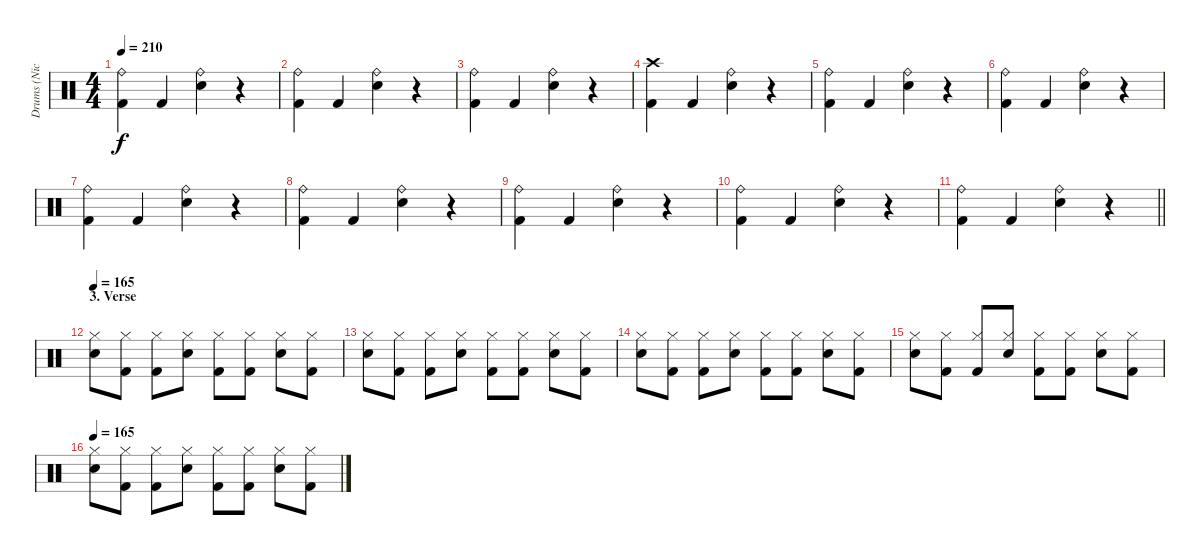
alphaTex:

\track ("Drums (Nicko McBrain)" "Drums (Nic") {instrument percussion}
\staff {score}
\articulation defaults
\ts (4 4)
\tempo 210
\clef neutral
\ks c
("Ride (bell)" "Kick (hit) 2").4{dy f} "Kick (hit) 2".4 ("Ride (bell)" "Electric Snare (hit)").4 r.4 |
("Ride (bell)" "Kick (hit) 2").4 "Kick (hit) 2".4 ("Ride (bell)" "Electric Snare (hit)").4 r.4 |
("Ride (bell)" "Kick (hit) 2").4 "Kick (hit) 2".4 ("Ride (bell)" "Electric Snare (hit)").4 r.4 |
("Crash high (hit)" "Kick (hit) 2").4 "Kick (hit) 2".4 ("Ride (bell)" "Electric Snare (hit)").4 r.4 |
("Ride (bell)" "Kick (hit) 2").4 "Kick (hit) 2".4 ("Ride (bell)" "Electric Snare (hit)").4 r.4 |
("Ride (bell)" "Kick (hit) 2").4 "Kick (hit) 2".4 ("Ride (bell)" "Electric Snare (hit)").4 r.4 |
("Ride (bell)" "Kick (hit) 2").4 "Kick (hit) 2".4 ("Ride (bell)" "Electric Snare (hit)").4 r.4 |
("Ride (bell)" "Kick (hit) 2").4 "Kick (hit) 2".4 ("Ride (bell)" "Electric Snare (hit)").4 r.4 |
("Ride (bell)" "Kick (hit) 2").4 "Kick (hit) 2".4 ("Ride (bell)" "Electric Snare (hit)").4 r.4 |
("Ride (bell)" "Kick (hit) 2").4 "Kick (hit) 2".4 ("Ride (bell)" "Electric Snare (hit)").4 r.4 |
\barLineRight lightlight
("Ride (bell)" "Kick (hit) 2").4 "Kick (hit) 2".4 ("Ride (bell)" "Electric Snare (hit)").4 r.4 |
\section ("" "3. Verse")
\tempo 165
("Hi-Hat (closed)" "Electric Snare (hit)").8 ("Hi-Hat (closed)" "Kick (hit) 2").8 ("Hi-Hat (closed)" "Kick (hit) 2").8 ("Hi-Hat (closed)" "Electric Snare (hit)").8 ("Hi-Hat (closed)" "Kick (hit) 2").8 ("Hi-Hat (closed)" "Kick (hit) 2").8 ("Hi-Hat (closed)" "Electric Snare (hit)").8 ("Hi-Hat (closed)" "Kick (hit) 2").8 |
("Hi-Hat (closed)" "Electric Snare (hit)").8 ("Hi-Hat (closed)" "Kick (hit) 2").8 ("Hi-Hat (closed)" "Kick (hit) 2").8 ("Hi-Hat (closed)" "Electric Snare (hit)").8 ("Hi-Hat (closed)" "Kick (hit) 2").8 ("Hi-Hat (closed)" "Kick (hit) 2").8 ("Hi-Hat (closed)" "Electric Snare (hit)").8 ("Hi-Hat (closed)" "Kick (hit) 2").8 |
("Hi-Hat (closed)" "Electric Snare (hit)").8 ("Hi-Hat (closed)" "Kick (hit) 2").8 ("Hi-Hat (closed)" "Kick (hit) 2").8 ("Hi-Hat (closed)" "Electric Snare (hit)").8 ("Hi-Hat (closed)" "Kick (hit) 2").8 ("Hi-Hat (closed)" "Kick (hit) 2").8 ("Hi-Hat (closed)" "Electric Snare (hit)").8 ("Hi-Hat (closed)" "Kick (hit) 2").8 |
("Hi-Hat (closed)" "Electric Snare (hit)").8 ("Hi-Hat (closed)" "Kick (hit) 2").8 ("Hi-Hat (closed)" "Kick (hit) 2").8{beam Up} ("Hi-Hat (closed)" "Electric Snare (hit)").8{beam Up} ("Hi-Hat (closed)" "Kick (hit) 2").8 ("Hi-Hat (closed)" "Kick (hit) 2").8 ("Hi-Hat (closed)" "Electric Snare (hit)").8 ("Hi-Hat (closed)" "Kick (hit) 2").8 |
\tempo 165
("Hi-Hat (closed)" "Electric Snare (hit)").8 ("Hi-Hat (closed)" "Kick (hit) 2").8 ("Hi-Hat (closed)" "Kick (hit) 2").8 ("Hi-Hat (closed)" "Electric Snare (hit)").8 ("Hi-Hat (closed)" "Kick (hit) 2").8 ("Hi-Hat (closed)" "Kick (hit) 2").8 ("Hi-Hat (closed)" "Electric Snare (hit)").8 ("Hi-Hat (closed)" "Kick (hit) 2").8
